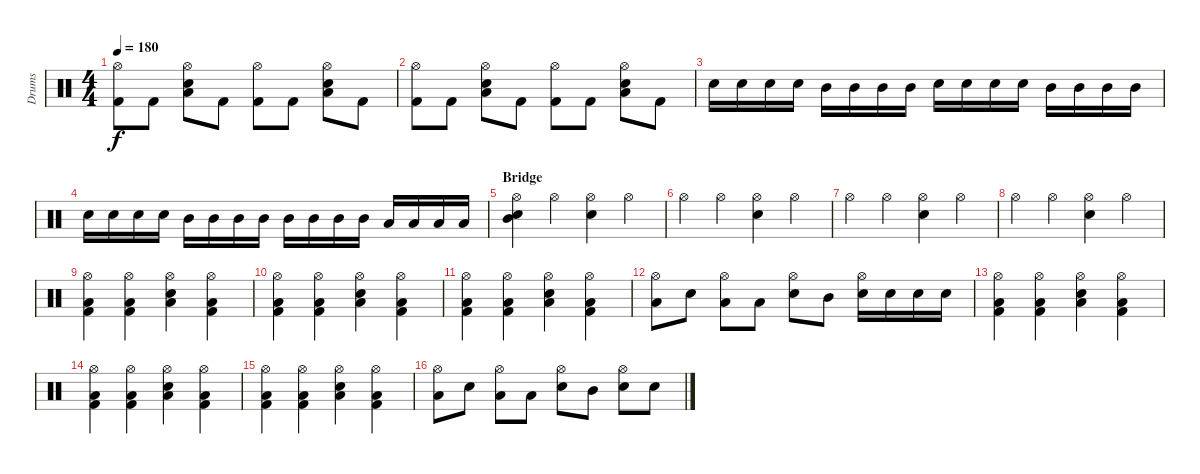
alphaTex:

\track ("Drums" "Drums") {instrument percussion}
\staff {score}
\articulation defaults
\ts (4 4)
\tempo 180
\clef neutral
\ks c
("Hi-Hat (open)" "Kick (hit) 2").8{dy f} "Kick (hit) 2".8 ("Hi-Hat (open)" "Electric Snare (hit)" "Low Tom (hit)").8 "Kick (hit) 2".8 ("Hi-Hat (open)" "Kick (hit) 2").8 "Kick (hit) 2".8 ("Hi-Hat (open)" "Electric Snare (hit)" "Low Tom (hit)").8 "Kick (hit) 2".8 |
("Hi-Hat (open)" "Kick (hit) 2").8 "Kick (hit) 2".8 ("Hi-Hat (open)" "Electric Snare (hit)" "Low Tom (hit)").8 "Kick (hit) 2".8 ("Hi-Hat (open)" "Kick (hit) 2").8 "Kick (hit) 2".8 ("Hi-Hat (open)" "Electric Snare (hit)" "Low Tom (hit)").8 "Kick (hit) 2".8 |
"Electric Snare (hit)".16 "Electric Snare (hit)".16 "Electric Snare (hit)".16 "Electric Snare (hit)".16 "Mid Tom (hit)".16 "Mid Tom (hit)".16 "Mid Tom (hit)".16 "Mid Tom (hit)".16 "Electric Snare (hit)".16 "Electric Snare (hit)".16 "Electric Snare (hit)".16 "Electric Snare (hit)".16 "Mid Tom (hit)".16 "Mid Tom (hit)".16 "Mid Tom (hit)".16 "Mid Tom (hit)".16 |
"Electric Snare (hit)".16 "Electric Snare (hit)".16 "Electric Snare (hit)".16 "Electric Snare (hit)".16 "Mid Tom (hit)".16 "Mid Tom (hit)".16 "Mid Tom (hit)".16 "Mid Tom (hit)".16 "Mid Tom (hit)".16 "Mid Tom (hit)".16 "Mid Tom (hit)".16 "Mid Tom (hit)".16 "Low Tom (hit)".16 "Low Tom (hit)".16 "Low Tom (hit)".16 "Low Tom (hit)".16 |
\section ("" "Bridge")
("Hi-Hat (open)" "Electric Snare (hit)" "Mid Tom (hit)").4 "Hi-Hat (open)".4 ("Hi-Hat (open)" "Electric Snare (hit)").4 "Hi-Hat (open)".4 |
"Hi-Hat (open)".4 "Hi-Hat (open)".4 ("Hi-Hat (open)" "Electric Snare (hit)").4 "Hi-Hat (open)".4 |
"Hi-Hat (open)".4 "Hi-Hat (open)".4 ("Hi-Hat (open)" "Electric Snare (hit)").4 "Hi-Hat (open)".4 |
"Hi-Hat (open)".4 "Hi-Hat (open)".4 ("Hi-Hat (open)" "Electric Snare (hit)").4 "Hi-Hat (open)".4 |
("Hi-Hat (open)" "Low Tom (hit)" "Kick (hit) 2").4 ("Hi-Hat (open)" "Low Tom (hit)" "Kick (hit) 2").4 ("Hi-Hat (open)" "Electric Snare (hit)" "Low Tom (hit)").4 ("Hi-Hat (open)" "Low Tom (hit)" "Kick (hit) 2").4 |
("Hi-Hat (open)" "Low Tom (hit)" "Kick (hit) 2").4 ("Hi-Hat (open)" "Low Tom (hit)" "Kick (hit) 2").4 ("Hi-Hat (open)" "Electric Snare (hit)" "Low Tom (hit)").4 ("Hi-Hat (open)" "Low Tom (hit)" "Kick (hit) 2").4 |
("Hi-Hat (open)" "Low Tom (hit)" "Kick (hit) 2").4 ("Hi-Hat (open)" "Low Tom (hit)" "Kick (hit) 2").4 ("Hi-Hat (open)" "Electric Snare (hit)" "Low Tom (hit)").4 ("Hi-Hat (open)" "Low Tom (hit)" "Kick (hit) 2").4 |
("Hi-Hat (open)" "Low Tom (hit)").8 "Electric Snare (hit)".8 ("Hi-Hat (open)" "Low Tom (hit)").8 "Low Tom (hit)".8 ("Hi-Hat (open)" "Electric Snare (hit)").8 "Mid Tom (hit)".8 ("Hi-Hat (open)" "Electric Snare (hit)").16 "Electric Snare (hit)".16 "Electric Snare (hit)".16 "Electric Snare (hit)".16 |
("Hi-Hat (open)" "Low Tom (hit)" "Kick (hit) 2").4 ("Hi-Hat (open)" "Low Tom (hit)" "Kick (hit) 2").4 ("Hi-Hat (open)" "Electric Snare (hit)" "Low Tom (hit)").4 ("Hi-Hat (open)" "Low Tom (hit)" "Kick (hit) 2").4 |
("Hi-Hat (open)" "Low Tom (hit)" "Kick (hit) 2").4 ("Hi-Hat (open)" "Low Tom (hit)" "Kick (hit) 2").4 ("Hi-Hat (open)" "Electric Snare (hit)" "Low Tom (hit)").4 ("Hi-Hat (open)" "Low Tom (hit)" "Kick (hit) 2").4 |
("Hi-Hat (open)" "Low Tom (hit)" "Kick (hit) 2").4 ("Hi-Hat (open)" "Low Tom (hit)" "Kick (hit) 2").4 ("Hi-Hat (open)" "Electric Snare (hit)" "Low Tom (hit)").4 ("Hi-Hat (open)" "Low Tom (hit)" "Kick (hit) 2").4 |
("Hi-Hat (open)" "Low Tom (hit)").8 "Electric Snare (hit)".8 ("Hi-Hat (open)" "Low Tom (hit)").8 "Low Tom (hit)".8 ("Hi-Hat (open)" "Electric Snare (hit)").8 "Mid Tom (hit)".8 ("Hi-Hat (open)" "Electric Snare (hit)").8 "Electric Snare (hit)".8
